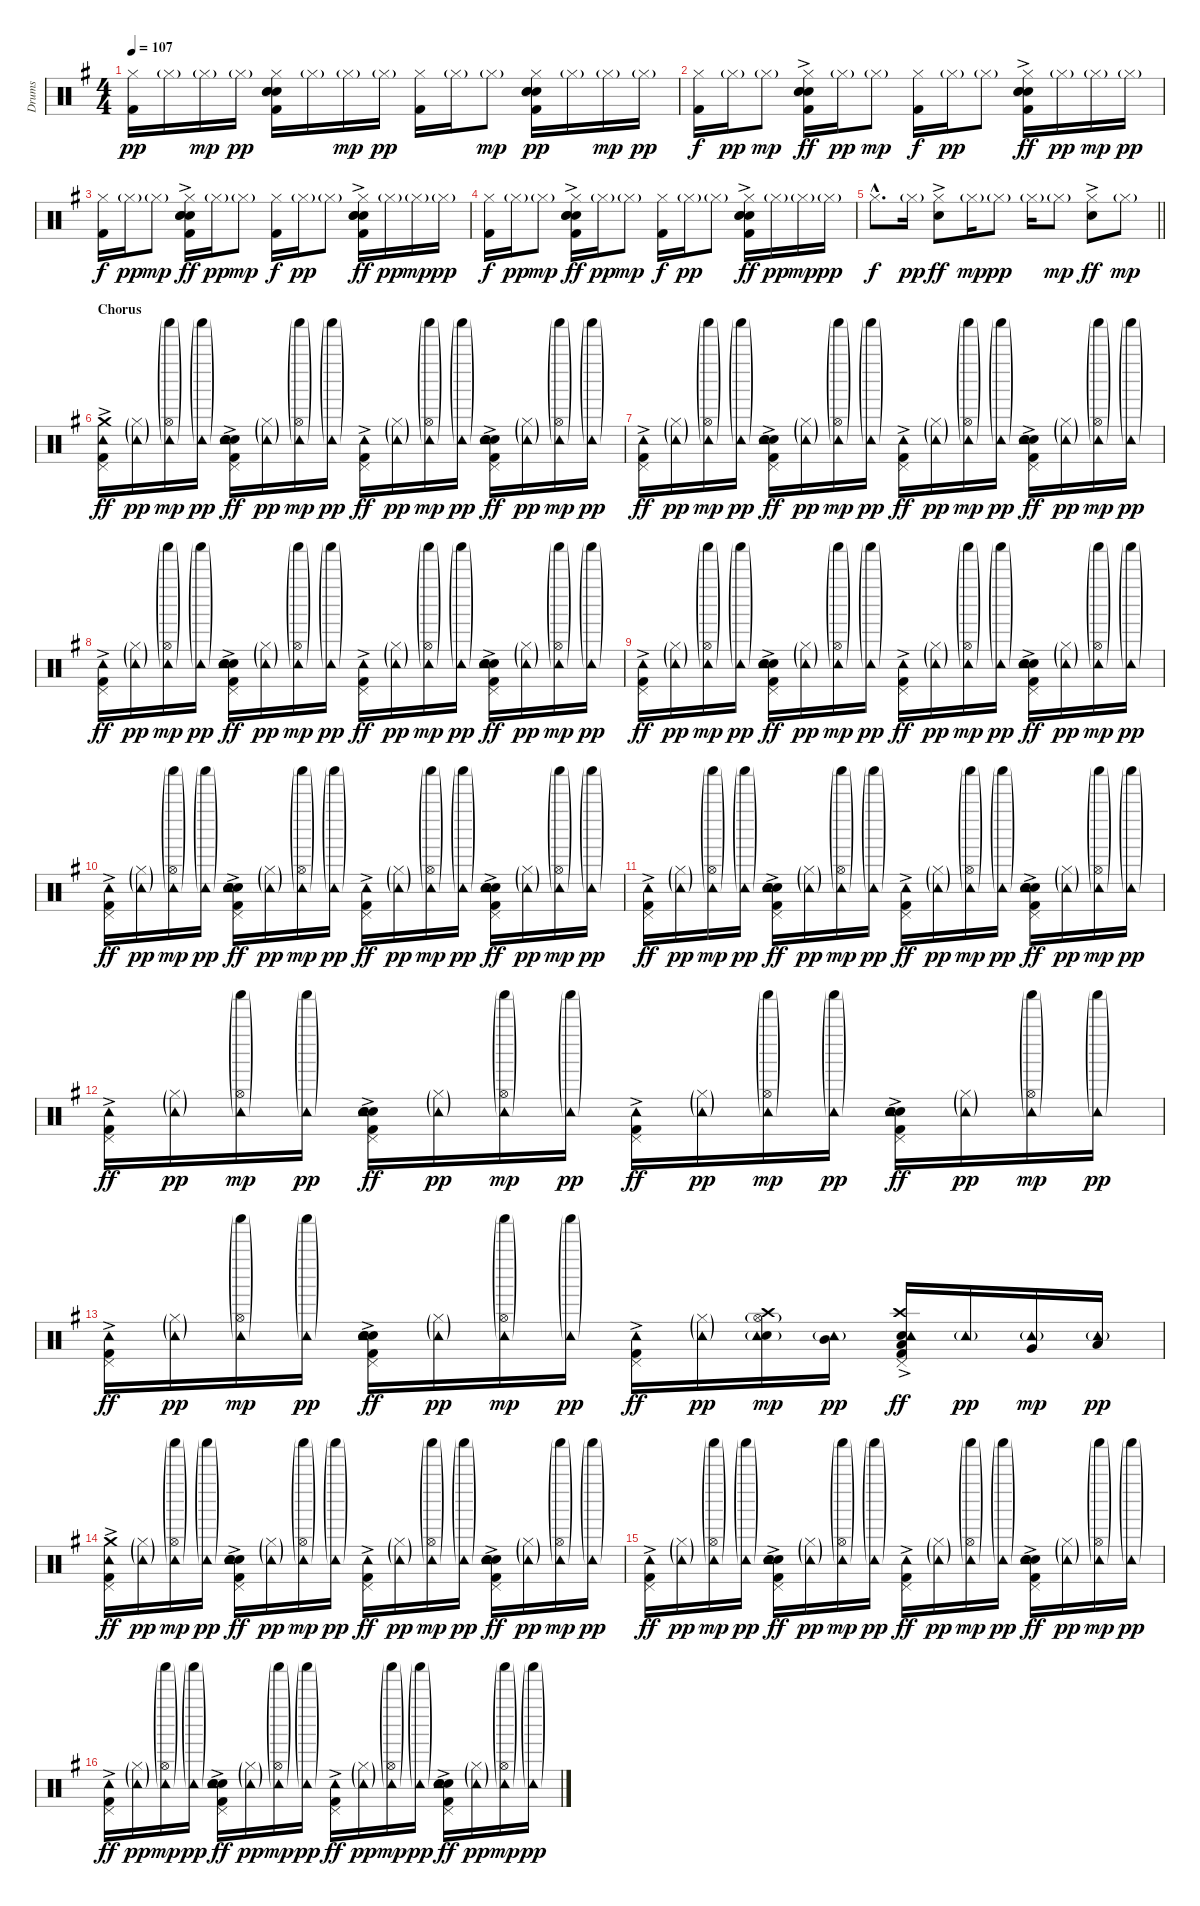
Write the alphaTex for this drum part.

\track ("Drums" "Drums") {instrument percussion}
\staff {score}
\articulation defaults
\ts (4 4)
\tempo 107
\clef neutral
\ks g
("Hi-Hat (closed)" "Kick (hit) 2").16{dy pp} "Hi-Hat (closed)"{g}.16 "Hi-Hat (closed)"{g}.16{dy mp} "Hi-Hat (closed)"{g}.16{dy pp} ("Hi-Hat (closed)" "Hand Clap (hit)" "Electric Snare (hit)" "Snare (hit) 2" "Kick (hit) 2").16 "Hi-Hat (closed)"{g}.16 "Hi-Hat (closed)"{g}.16{dy mp} "Hi-Hat (closed)"{g}.16{dy pp} ("Hi-Hat (closed)" "Kick (hit) 2").16 "Hi-Hat (closed)"{g}.16 "Hi-Hat (closed)"{g}.8{dy mp} ("Hi-Hat (closed)" "Hand Clap (hit)" "Electric Snare (hit)" "Snare (hit) 2" "Kick (hit) 2").16{dy pp} "Hi-Hat (closed)"{g}.16 "Hi-Hat (closed)"{g}.16{dy mp} "Hi-Hat (closed)"{g}.16{dy pp} |
("Hi-Hat (closed)" "Kick (hit) 2").16{dy f} "Hi-Hat (closed)"{g}.16{dy pp} "Hi-Hat (closed)"{g}.8{dy mp} ("Hi-Hat (closed)" "Hand Clap (hit)" "Electric Snare (hit)"{ac} "Snare (hit) 2" "Kick (hit) 2").16{dy ff} "Hi-Hat (closed)"{g}.16{dy pp} "Hi-Hat (closed)"{g}.8{dy mp} ("Hi-Hat (closed)" "Kick (hit) 2").16{dy f} "Hi-Hat (closed)"{g}.16{dy pp} "Hi-Hat (closed)"{g}.8 ("Hi-Hat (closed)" "Hand Clap (hit)" "Electric Snare (hit)"{ac} "Snare (hit) 2" "Kick (hit) 2").16{dy ff} "Hi-Hat (closed)"{g}.16{dy pp} "Hi-Hat (closed)"{g}.16{dy mp} "Hi-Hat (closed)"{g}.16{dy pp} |
("Hi-Hat (closed)" "Kick (hit) 2").16{dy f} "Hi-Hat (closed)"{g}.16{dy pp} "Hi-Hat (closed)"{g}.8{dy mp} ("Hi-Hat (closed)" "Hand Clap (hit)" "Electric Snare (hit)"{ac} "Snare (hit) 2" "Kick (hit) 2").16{dy ff} "Hi-Hat (closed)"{g}.16{dy pp} "Hi-Hat (closed)"{g}.8{dy mp} ("Hi-Hat (closed)" "Kick (hit) 2").16{dy f} "Hi-Hat (closed)"{g}.16{dy pp} "Hi-Hat (closed)"{g}.8 ("Hi-Hat (closed)" "Hand Clap (hit)" "Electric Snare (hit)"{ac} "Snare (hit) 2" "Kick (hit) 2").16{dy ff} "Hi-Hat (closed)"{g}.16{dy pp} "Hi-Hat (closed)"{g}.16{dy mp} "Hi-Hat (closed)"{g}.16{dy pp} |
("Hi-Hat (closed)" "Kick (hit) 2").16{dy f} "Hi-Hat (closed)"{g}.16{dy pp} "Hi-Hat (closed)"{g}.8{dy mp} ("Hi-Hat (closed)" "Hand Clap (hit)" "Electric Snare (hit)"{ac} "Snare (hit) 2" "Kick (hit) 2").16{dy ff} "Hi-Hat (closed)"{g}.16{dy pp} "Hi-Hat (closed)"{g}.8{dy mp} ("Hi-Hat (closed)" "Kick (hit) 2").16{dy f} "Hi-Hat (closed)"{g}.16{dy pp} "Hi-Hat (closed)"{g}.8 ("Hi-Hat (closed)" "Hand Clap (hit)" "Electric Snare (hit)"{ac} "Snare (hit) 2" "Kick (hit) 2").16{dy ff} "Hi-Hat (closed)"{g}.16{dy pp} "Hi-Hat (closed)"{g}.16{dy mp} "Hi-Hat (closed)"{g}.16{dy pp} |
\barLineRight lightlight "Hi-Hat (closed)"{hac}.8{d dy f} "Hi-Hat (closed)"{g}.16{dy pp}
("Hi-Hat (closed)" "Hand Clap (hit)"{ac}).8{dy ff} "Hi-Hat (closed)"{g}.16{dy mp} "Hi-Hat (closed)"{g}.8{dy pp} "Hi-Hat (closed)"{g}.16 "Hi-Hat (closed)"{g}.8{dy mp} ("Hi-Hat (closed)" "Hand Clap (hit)"{ac}).8{dy ff} "Hi-Hat (closed)"{g}.8{dy mp} |
\section ("" "Chorus")
("Kick (hit) 2"{ac} "Crash medium (hit)" "Pedal Hi-Hat (hit)" "Tambourine (hit)").16{dy ff} ("Hi-Hat (closed)"{g} "Tambourine (hit)"{g}).16{dy pp} ("Shaker (hit)"{g} "Hi-Hat (open)"{g} "Tambourine (hit)"{g}).16{dy mp} ("Shaker (hit)"{g} "Tambourine (hit)"{g}).16{dy pp} ("Kick (hit) 2"{ac} "Electric Snare (hit)"{ac} "Snare (hit) 2" "Hand Clap (hit)" "Pedal Hi-Hat (hit)" "Tambourine (hit)").16{dy ff} ("Hi-Hat (closed)"{g} "Tambourine (hit)"{g}).16{dy pp} ("Shaker (hit)"{g} "Hi-Hat (open)"{g} "Tambourine (hit)"{g}).16{dy mp} ("Shaker (hit)"{g} "Tambourine (hit)"{g}).16{dy pp} ("Kick (hit) 2"{ac} "Pedal Hi-Hat (hit)" "Tambourine (hit)").16{dy ff} ("Hi-Hat (closed)"{g} "Tambourine (hit)"{g}).16{dy pp} ("Shaker (hit)"{g} "Hi-Hat (open)"{g} "Tambourine (hit)"{g}).16{dy mp} ("Shaker (hit)"{g} "Tambourine (hit)"{g}).16{dy pp} ("Kick (hit) 2"{ac} "Electric Snare (hit)"{ac} "Snare (hit) 2" "Hand Clap (hit)" "Pedal Hi-Hat (hit)" "Tambourine (hit)").16{dy ff} ("Hi-Hat (closed)"{g} "Tambourine (hit)"{g}).16{dy pp} ("Shaker (hit)"{g} "Hi-Hat (open)"{g} "Tambourine (hit)"{g}).16{dy mp} ("Shaker (hit)"{g} "Tambourine (hit)"{g}).16{dy pp} |
("Kick (hit) 2"{ac} "Pedal Hi-Hat (hit)" "Tambourine (hit)").16{dy ff} ("Hi-Hat (closed)"{g} "Tambourine (hit)"{g}).16{dy pp} ("Shaker (hit)"{g} "Hi-Hat (open)"{g} "Tambourine (hit)"{g}).16{dy mp} ("Shaker (hit)"{g} "Tambourine (hit)"{g}).16{dy pp} ("Kick (hit) 2"{ac} "Electric Snare (hit)"{ac} "Snare (hit) 2" "Hand Clap (hit)" "Pedal Hi-Hat (hit)" "Tambourine (hit)").16{dy ff} ("Hi-Hat (closed)"{g} "Tambourine (hit)"{g}).16{dy pp} ("Shaker (hit)"{g} "Hi-Hat (open)"{g} "Tambourine (hit)"{g}).16{dy mp} ("Shaker (hit)"{g} "Tambourine (hit)"{g}).16{dy pp} ("Kick (hit) 2"{ac} "Pedal Hi-Hat (hit)" "Tambourine (hit)").16{dy ff} ("Hi-Hat (closed)"{g} "Tambourine (hit)"{g}).16{dy pp} ("Shaker (hit)"{g} "Hi-Hat (open)"{g} "Tambourine (hit)"{g}).16{dy mp} ("Shaker (hit)"{g} "Tambourine (hit)"{g}).16{dy pp} ("Kick (hit) 2"{ac} "Electric Snare (hit)"{ac} "Snare (hit) 2" "Hand Clap (hit)" "Pedal Hi-Hat (hit)" "Tambourine (hit)").16{dy ff} ("Hi-Hat (closed)"{g} "Tambourine (hit)"{g}).16{dy pp} ("Shaker (hit)"{g} "Hi-Hat (open)"{g} "Tambourine (hit)"{g}).16{dy mp} ("Shaker (hit)"{g} "Tambourine (hit)"{g}).16{dy pp} |
("Kick (hit) 2"{ac} "Pedal Hi-Hat (hit)" "Tambourine (hit)").16{dy ff} ("Hi-Hat (closed)"{g} "Tambourine (hit)"{g}).16{dy pp} ("Shaker (hit)"{g} "Hi-Hat (open)"{g} "Tambourine (hit)"{g}).16{dy mp} ("Shaker (hit)"{g} "Tambourine (hit)"{g}).16{dy pp} ("Kick (hit) 2"{ac} "Electric Snare (hit)"{ac} "Snare (hit) 2" "Hand Clap (hit)" "Pedal Hi-Hat (hit)" "Tambourine (hit)").16{dy ff} ("Hi-Hat (closed)"{g} "Tambourine (hit)"{g}).16{dy pp} ("Shaker (hit)"{g} "Hi-Hat (open)"{g} "Tambourine (hit)"{g}).16{dy mp} ("Shaker (hit)"{g} "Tambourine (hit)"{g}).16{dy pp} ("Kick (hit) 2"{ac} "Pedal Hi-Hat (hit)" "Tambourine (hit)").16{dy ff} ("Hi-Hat (closed)"{g} "Tambourine (hit)"{g}).16{dy pp} ("Shaker (hit)"{g} "Hi-Hat (open)"{g} "Tambourine (hit)"{g}).16{dy mp} ("Shaker (hit)"{g} "Tambourine (hit)"{g}).16{dy pp} ("Kick (hit) 2"{ac} "Electric Snare (hit)"{ac} "Snare (hit) 2" "Hand Clap (hit)" "Pedal Hi-Hat (hit)" "Tambourine (hit)").16{dy ff} ("Hi-Hat (closed)"{g} "Tambourine (hit)"{g}).16{dy pp} ("Shaker (hit)"{g} "Hi-Hat (open)"{g} "Tambourine (hit)"{g}).16{dy mp} ("Shaker (hit)"{g} "Tambourine (hit)"{g}).16{dy pp} |
("Kick (hit) 2"{ac} "Pedal Hi-Hat (hit)" "Tambourine (hit)").16{dy ff} ("Hi-Hat (closed)"{g} "Tambourine (hit)"{g}).16{dy pp} ("Shaker (hit)"{g} "Hi-Hat (open)"{g} "Tambourine (hit)"{g}).16{dy mp} ("Shaker (hit)"{g} "Tambourine (hit)"{g}).16{dy pp} ("Kick (hit) 2"{ac} "Electric Snare (hit)"{ac} "Snare (hit) 2" "Hand Clap (hit)" "Pedal Hi-Hat (hit)" "Tambourine (hit)").16{dy ff} ("Hi-Hat (closed)"{g} "Tambourine (hit)"{g}).16{dy pp} ("Shaker (hit)"{g} "Hi-Hat (open)"{g} "Tambourine (hit)"{g}).16{dy mp} ("Shaker (hit)"{g} "Tambourine (hit)"{g}).16{dy pp} ("Kick (hit) 2"{ac} "Pedal Hi-Hat (hit)" "Tambourine (hit)").16{dy ff} ("Hi-Hat (closed)"{g} "Tambourine (hit)"{g}).16{dy pp} ("Shaker (hit)"{g} "Hi-Hat (open)"{g} "Tambourine (hit)"{g}).16{dy mp} ("Shaker (hit)"{g} "Tambourine (hit)"{g}).16{dy pp} ("Kick (hit) 2"{ac} "Electric Snare (hit)"{ac} "Snare (hit) 2" "Hand Clap (hit)" "Pedal Hi-Hat (hit)" "Tambourine (hit)").16{dy ff} ("Hi-Hat (closed)"{g} "Tambourine (hit)"{g}).16{dy pp} ("Shaker (hit)"{g} "Hi-Hat (open)"{g} "Tambourine (hit)"{g}).16{dy mp} ("Shaker (hit)"{g} "Tambourine (hit)"{g}).16{dy pp} |
("Kick (hit) 2"{ac} "Pedal Hi-Hat (hit)" "Tambourine (hit)").16{dy ff} ("Hi-Hat (closed)"{g} "Tambourine (hit)"{g}).16{dy pp} ("Shaker (hit)"{g} "Hi-Hat (open)"{g} "Tambourine (hit)"{g}).16{dy mp} ("Shaker (hit)"{g} "Tambourine (hit)"{g}).16{dy pp} ("Kick (hit) 2"{ac} "Electric Snare (hit)"{ac} "Snare (hit) 2" "Hand Clap (hit)" "Pedal Hi-Hat (hit)" "Tambourine (hit)").16{dy ff} ("Hi-Hat (closed)"{g} "Tambourine (hit)"{g}).16{dy pp} ("Shaker (hit)"{g} "Hi-Hat (open)"{g} "Tambourine (hit)"{g}).16{dy mp} ("Shaker (hit)"{g} "Tambourine (hit)"{g}).16{dy pp} ("Kick (hit) 2"{ac} "Pedal Hi-Hat (hit)" "Tambourine (hit)").16{dy ff} ("Hi-Hat (closed)"{g} "Tambourine (hit)"{g}).16{dy pp} ("Shaker (hit)"{g} "Hi-Hat (open)"{g} "Tambourine (hit)"{g}).16{dy mp} ("Shaker (hit)"{g} "Tambourine (hit)"{g}).16{dy pp} ("Kick (hit) 2"{ac} "Electric Snare (hit)"{ac} "Snare (hit) 2" "Hand Clap (hit)" "Pedal Hi-Hat (hit)" "Tambourine (hit)").16{dy ff} ("Hi-Hat (closed)"{g} "Tambourine (hit)"{g}).16{dy pp} ("Shaker (hit)"{g} "Hi-Hat (open)"{g} "Tambourine (hit)"{g}).16{dy mp} ("Shaker (hit)"{g} "Tambourine (hit)"{g}).16{dy pp} |
("Kick (hit) 2"{ac} "Pedal Hi-Hat (hit)" "Tambourine (hit)").16{dy ff} ("Hi-Hat (closed)"{g} "Tambourine (hit)"{g}).16{dy pp} ("Shaker (hit)"{g} "Hi-Hat (open)"{g} "Tambourine (hit)"{g}).16{dy mp} ("Shaker (hit)"{g} "Tambourine (hit)"{g}).16{dy pp} ("Kick (hit) 2"{ac} "Electric Snare (hit)"{ac} "Snare (hit) 2" "Hand Clap (hit)" "Pedal Hi-Hat (hit)" "Tambourine (hit)").16{dy ff} ("Hi-Hat (closed)"{g} "Tambourine (hit)"{g}).16{dy pp} ("Shaker (hit)"{g} "Hi-Hat (open)"{g} "Tambourine (hit)"{g}).16{dy mp} ("Shaker (hit)"{g} "Tambourine (hit)"{g}).16{dy pp} ("Kick (hit) 2"{ac} "Pedal Hi-Hat (hit)" "Tambourine (hit)").16{dy ff} ("Hi-Hat (closed)"{g} "Tambourine (hit)"{g}).16{dy pp} ("Shaker (hit)"{g} "Hi-Hat (open)"{g} "Tambourine (hit)"{g}).16{dy mp} ("Shaker (hit)"{g} "Tambourine (hit)"{g}).16{dy pp} ("Kick (hit) 2"{ac} "Electric Snare (hit)"{ac} "Snare (hit) 2" "Hand Clap (hit)" "Pedal Hi-Hat (hit)" "Tambourine (hit)").16{dy ff} ("Hi-Hat (closed)"{g} "Tambourine (hit)"{g}).16{dy pp} ("Shaker (hit)"{g} "Hi-Hat (open)"{g} "Tambourine (hit)"{g}).16{dy mp} ("Shaker (hit)"{g} "Tambourine (hit)"{g}).16{dy pp} |
("Kick (hit) 2"{ac} "Pedal Hi-Hat (hit)" "Tambourine (hit)").16{dy ff} ("Hi-Hat (closed)"{g} "Tambourine (hit)"{g}).16{dy pp} ("Shaker (hit)"{g} "Hi-Hat (open)"{g} "Tambourine (hit)"{g}).16{dy mp} ("Shaker (hit)"{g} "Tambourine (hit)"{g}).16{dy pp} ("Kick (hit) 2"{ac} "Electric Snare (hit)"{ac} "Snare (hit) 2" "Hand Clap (hit)" "Pedal Hi-Hat (hit)" "Tambourine (hit)").16{dy ff} ("Hi-Hat (closed)"{g} "Tambourine (hit)"{g}).16{dy pp} ("Shaker (hit)"{g} "Hi-Hat (open)"{g} "Tambourine (hit)"{g}).16{dy mp} ("Shaker (hit)"{g} "Tambourine (hit)"{g}).16{dy pp} ("Kick (hit) 2"{ac} "Pedal Hi-Hat (hit)" "Tambourine (hit)").16{dy ff} ("Hi-Hat (closed)"{g} "Tambourine (hit)"{g}).16{dy pp} ("Shaker (hit)"{g} "Hi-Hat (open)"{g} "Tambourine (hit)"{g}).16{dy mp} ("Shaker (hit)"{g} "Tambourine (hit)"{g}).16{dy pp} ("Kick (hit) 2"{ac} "Electric Snare (hit)"{ac} "Snare (hit) 2" "Hand Clap (hit)" "Pedal Hi-Hat (hit)" "Tambourine (hit)").16{dy ff} ("Hi-Hat (closed)"{g} "Tambourine (hit)"{g}).16{dy pp} ("Shaker (hit)"{g} "Hi-Hat (open)"{g} "Tambourine (hit)"{g}).16{dy mp} ("Shaker (hit)"{g} "Tambourine (hit)"{g}).16{dy pp} |
("Kick (hit) 2"{ac} "Pedal Hi-Hat (hit)" "Tambourine (hit)").16{dy ff} ("Hi-Hat (closed)"{g} "Tambourine (hit)"{g}).16{dy pp} ("Shaker (hit)"{g} "Hi-Hat (open)"{g} "Tambourine (hit)"{g}).16{dy mp} ("Shaker (hit)"{g} "Tambourine (hit)"{g}).16{dy pp} ("Kick (hit) 2"{ac} "Electric Snare (hit)"{ac} "Snare (hit) 2" "Hand Clap (hit)" "Pedal Hi-Hat (hit)" "Tambourine (hit)").16{dy ff} ("Hi-Hat (closed)"{g} "Tambourine (hit)"{g}).16{dy pp} ("Shaker (hit)"{g} "Hi-Hat (open)"{g} "Tambourine (hit)"{g}).16{dy mp} ("Shaker (hit)"{g} "Tambourine (hit)"{g}).16{dy pp} ("Kick (hit) 2"{ac} "Pedal Hi-Hat (hit)" "Tambourine (hit)").16{dy ff} ("Hi-Hat (closed)"{g} "Tambourine (hit)"{g}).16{dy pp} ("Hand Clap (hit)" "Crash high (hit)" "Hi-Hat (open)"{g} "Tambourine (hit)"{g}).16{dy mp} ("Mid Tom (hit)" "Tambourine (hit)"{g}).16{dy pp} ("Kick (hit) 2"{ac} "Electric Snare (hit)"{ac} "Low Tom (hit)" "Crash high (hit)" "Pedal Hi-Hat (hit)" "Tambourine (hit)").16{dy ff} "Tambourine (hit)"{g}.16{dy pp} ("Very Low Tom (hit)" "Tambourine (hit)"{g}).16{dy mp} ("Low Floor Tom (hit)" "Tambourine (hit)"{g}).16{dy pp} |
("Kick (hit) 2"{ac} "Crash medium (hit)" "Pedal Hi-Hat (hit)" "Tambourine (hit)").16{dy ff} ("Hi-Hat (closed)"{g} "Tambourine (hit)"{g}).16{dy pp} ("Shaker (hit)"{g} "Hi-Hat (open)"{g} "Tambourine (hit)"{g}).16{dy mp} ("Shaker (hit)"{g} "Tambourine (hit)"{g}).16{dy pp} ("Kick (hit) 2"{ac} "Electric Snare (hit)"{ac} "Snare (hit) 2" "Hand Clap (hit)" "Pedal Hi-Hat (hit)" "Tambourine (hit)").16{dy ff} ("Hi-Hat (closed)"{g} "Tambourine (hit)"{g}).16{dy pp} ("Shaker (hit)"{g} "Hi-Hat (open)"{g} "Tambourine (hit)"{g}).16{dy mp} ("Shaker (hit)"{g} "Tambourine (hit)"{g}).16{dy pp} ("Kick (hit) 2"{ac} "Pedal Hi-Hat (hit)" "Tambourine (hit)").16{dy ff} ("Hi-Hat (closed)"{g} "Tambourine (hit)"{g}).16{dy pp} ("Shaker (hit)"{g} "Hi-Hat (open)"{g} "Tambourine (hit)"{g}).16{dy mp} ("Shaker (hit)"{g} "Tambourine (hit)"{g}).16{dy pp} ("Kick (hit) 2"{ac} "Electric Snare (hit)"{ac} "Snare (hit) 2" "Hand Clap (hit)" "Pedal Hi-Hat (hit)" "Tambourine (hit)").16{dy ff} ("Hi-Hat (closed)"{g} "Tambourine (hit)"{g}).16{dy pp} ("Shaker (hit)"{g} "Hi-Hat (open)"{g} "Tambourine (hit)"{g}).16{dy mp} ("Shaker (hit)"{g} "Tambourine (hit)"{g}).16{dy pp} |
("Kick (hit) 2"{ac} "Pedal Hi-Hat (hit)" "Tambourine (hit)").16{dy ff} ("Hi-Hat (closed)"{g} "Tambourine (hit)"{g}).16{dy pp} ("Shaker (hit)"{g} "Hi-Hat (open)"{g} "Tambourine (hit)"{g}).16{dy mp} ("Shaker (hit)"{g} "Tambourine (hit)"{g}).16{dy pp} ("Kick (hit) 2"{ac} "Electric Snare (hit)"{ac} "Snare (hit) 2" "Hand Clap (hit)" "Pedal Hi-Hat (hit)" "Tambourine (hit)").16{dy ff} ("Hi-Hat (closed)"{g} "Tambourine (hit)"{g}).16{dy pp} ("Shaker (hit)"{g} "Hi-Hat (open)"{g} "Tambourine (hit)"{g}).16{dy mp} ("Shaker (hit)"{g} "Tambourine (hit)"{g}).16{dy pp} ("Kick (hit) 2"{ac} "Pedal Hi-Hat (hit)" "Tambourine (hit)").16{dy ff} ("Hi-Hat (closed)"{g} "Tambourine (hit)"{g}).16{dy pp} ("Shaker (hit)"{g} "Hi-Hat (open)"{g} "Tambourine (hit)"{g}).16{dy mp} ("Shaker (hit)"{g} "Tambourine (hit)"{g}).16{dy pp} ("Kick (hit) 2"{ac} "Electric Snare (hit)"{ac} "Snare (hit) 2" "Hand Clap (hit)" "Pedal Hi-Hat (hit)" "Tambourine (hit)").16{dy ff} ("Hi-Hat (closed)"{g} "Tambourine (hit)"{g}).16{dy pp} ("Shaker (hit)"{g} "Hi-Hat (open)"{g} "Tambourine (hit)"{g}).16{dy mp} ("Shaker (hit)"{g} "Tambourine (hit)"{g}).16{dy pp} |
("Kick (hit) 2"{ac} "Pedal Hi-Hat (hit)" "Tambourine (hit)").16{dy ff} ("Hi-Hat (closed)"{g} "Tambourine (hit)"{g}).16{dy pp} ("Shaker (hit)"{g} "Hi-Hat (open)"{g} "Tambourine (hit)"{g}).16{dy mp} ("Shaker (hit)"{g} "Tambourine (hit)"{g}).16{dy pp} ("Kick (hit) 2"{ac} "Electric Snare (hit)"{ac} "Snare (hit) 2" "Hand Clap (hit)" "Pedal Hi-Hat (hit)" "Tambourine (hit)").16{dy ff} ("Hi-Hat (closed)"{g} "Tambourine (hit)"{g}).16{dy pp} ("Shaker (hit)"{g} "Hi-Hat (open)"{g} "Tambourine (hit)"{g}).16{dy mp} ("Shaker (hit)"{g} "Tambourine (hit)"{g}).16{dy pp} ("Kick (hit) 2"{ac} "Pedal Hi-Hat (hit)" "Tambourine (hit)").16{dy ff} ("Hi-Hat (closed)"{g} "Tambourine (hit)"{g}).16{dy pp} ("Shaker (hit)"{g} "Hi-Hat (open)"{g} "Tambourine (hit)"{g}).16{dy mp} ("Shaker (hit)"{g} "Tambourine (hit)"{g}).16{dy pp} ("Kick (hit) 2"{ac} "Electric Snare (hit)"{ac} "Snare (hit) 2" "Hand Clap (hit)" "Pedal Hi-Hat (hit)" "Tambourine (hit)").16{dy ff} ("Hi-Hat (closed)"{g} "Tambourine (hit)"{g}).16{dy pp} ("Shaker (hit)"{g} "Hi-Hat (open)"{g} "Tambourine (hit)"{g}).16{dy mp} ("Shaker (hit)"{g} "Tambourine (hit)"{g}).16{dy pp}
